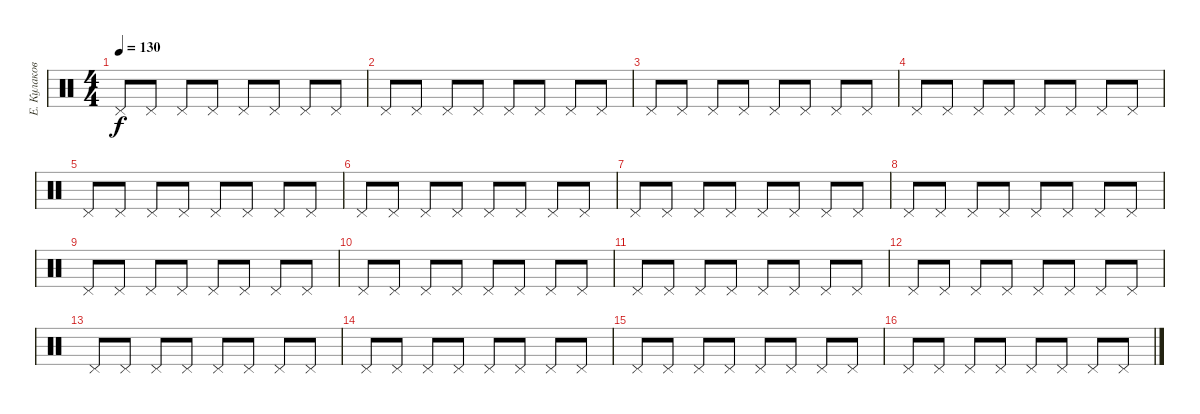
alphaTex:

\track ("Е. Кулаков Hi-Hat" "Е. Кулаков") {instrument percussion}
\staff {score}
\articulation defaults
\ts (4 4)
\tempo 130
\clef neutral
\ks c "Pedal Hi-Hat (hit)".8{dy f} "Pedal Hi-Hat (hit)".8 "Pedal Hi-Hat (hit)".8 "Pedal Hi-Hat (hit)".8 "Pedal Hi-Hat (hit)".8 "Pedal Hi-Hat (hit)".8 "Pedal Hi-Hat (hit)".8 "Pedal Hi-Hat (hit)".8
|
"Pedal Hi-Hat (hit)".8 "Pedal Hi-Hat (hit)".8 "Pedal Hi-Hat (hit)".8 "Pedal Hi-Hat (hit)".8 "Pedal Hi-Hat (hit)".8 "Pedal Hi-Hat (hit)".8 "Pedal Hi-Hat (hit)".8 "Pedal Hi-Hat (hit)".8 |
"Pedal Hi-Hat (hit)".8 "Pedal Hi-Hat (hit)".8 "Pedal Hi-Hat (hit)".8 "Pedal Hi-Hat (hit)".8 "Pedal Hi-Hat (hit)".8 "Pedal Hi-Hat (hit)".8 "Pedal Hi-Hat (hit)".8 "Pedal Hi-Hat (hit)".8 |
"Pedal Hi-Hat (hit)".8 "Pedal Hi-Hat (hit)".8 "Pedal Hi-Hat (hit)".8 "Pedal Hi-Hat (hit)".8 "Pedal Hi-Hat (hit)".8 "Pedal Hi-Hat (hit)".8 "Pedal Hi-Hat (hit)".8 "Pedal Hi-Hat (hit)".8 |
"Pedal Hi-Hat (hit)".8 "Pedal Hi-Hat (hit)".8 "Pedal Hi-Hat (hit)".8 "Pedal Hi-Hat (hit)".8 "Pedal Hi-Hat (hit)".8 "Pedal Hi-Hat (hit)".8 "Pedal Hi-Hat (hit)".8 "Pedal Hi-Hat (hit)".8 |
"Pedal Hi-Hat (hit)".8 "Pedal Hi-Hat (hit)".8 "Pedal Hi-Hat (hit)".8 "Pedal Hi-Hat (hit)".8 "Pedal Hi-Hat (hit)".8 "Pedal Hi-Hat (hit)".8 "Pedal Hi-Hat (hit)".8 "Pedal Hi-Hat (hit)".8 |
"Pedal Hi-Hat (hit)".8 "Pedal Hi-Hat (hit)".8 "Pedal Hi-Hat (hit)".8 "Pedal Hi-Hat (hit)".8 "Pedal Hi-Hat (hit)".8 "Pedal Hi-Hat (hit)".8 "Pedal Hi-Hat (hit)".8 "Pedal Hi-Hat (hit)".8 |
"Pedal Hi-Hat (hit)".8 "Pedal Hi-Hat (hit)".8 "Pedal Hi-Hat (hit)".8 "Pedal Hi-Hat (hit)".8 "Pedal Hi-Hat (hit)".8 "Pedal Hi-Hat (hit)".8 "Pedal Hi-Hat (hit)".8 "Pedal Hi-Hat (hit)".8 |
"Pedal Hi-Hat (hit)".8 "Pedal Hi-Hat (hit)".8 "Pedal Hi-Hat (hit)".8 "Pedal Hi-Hat (hit)".8 "Pedal Hi-Hat (hit)".8 "Pedal Hi-Hat (hit)".8 "Pedal Hi-Hat (hit)".8 "Pedal Hi-Hat (hit)".8 |
"Pedal Hi-Hat (hit)".8 "Pedal Hi-Hat (hit)".8 "Pedal Hi-Hat (hit)".8 "Pedal Hi-Hat (hit)".8 "Pedal Hi-Hat (hit)".8 "Pedal Hi-Hat (hit)".8 "Pedal Hi-Hat (hit)".8 "Pedal Hi-Hat (hit)".8 |
"Pedal Hi-Hat (hit)".8 "Pedal Hi-Hat (hit)".8 "Pedal Hi-Hat (hit)".8 "Pedal Hi-Hat (hit)".8 "Pedal Hi-Hat (hit)".8 "Pedal Hi-Hat (hit)".8 "Pedal Hi-Hat (hit)".8 "Pedal Hi-Hat (hit)".8 |
"Pedal Hi-Hat (hit)".8 "Pedal Hi-Hat (hit)".8 "Pedal Hi-Hat (hit)".8 "Pedal Hi-Hat (hit)".8 "Pedal Hi-Hat (hit)".8 "Pedal Hi-Hat (hit)".8 "Pedal Hi-Hat (hit)".8 "Pedal Hi-Hat (hit)".8 |
"Pedal Hi-Hat (hit)".8 "Pedal Hi-Hat (hit)".8 "Pedal Hi-Hat (hit)".8 "Pedal Hi-Hat (hit)".8 "Pedal Hi-Hat (hit)".8 "Pedal Hi-Hat (hit)".8 "Pedal Hi-Hat (hit)".8 "Pedal Hi-Hat (hit)".8 |
"Pedal Hi-Hat (hit)".8 "Pedal Hi-Hat (hit)".8 "Pedal Hi-Hat (hit)".8 "Pedal Hi-Hat (hit)".8 "Pedal Hi-Hat (hit)".8 "Pedal Hi-Hat (hit)".8 "Pedal Hi-Hat (hit)".8 "Pedal Hi-Hat (hit)".8 |
"Pedal Hi-Hat (hit)".8 "Pedal Hi-Hat (hit)".8 "Pedal Hi-Hat (hit)".8 "Pedal Hi-Hat (hit)".8 "Pedal Hi-Hat (hit)".8 "Pedal Hi-Hat (hit)".8 "Pedal Hi-Hat (hit)".8 "Pedal Hi-Hat (hit)".8 |
"Pedal Hi-Hat (hit)".8 "Pedal Hi-Hat (hit)".8 "Pedal Hi-Hat (hit)".8 "Pedal Hi-Hat (hit)".8 "Pedal Hi-Hat (hit)".8 "Pedal Hi-Hat (hit)".8 "Pedal Hi-Hat (hit)".8 "Pedal Hi-Hat (hit)".8
